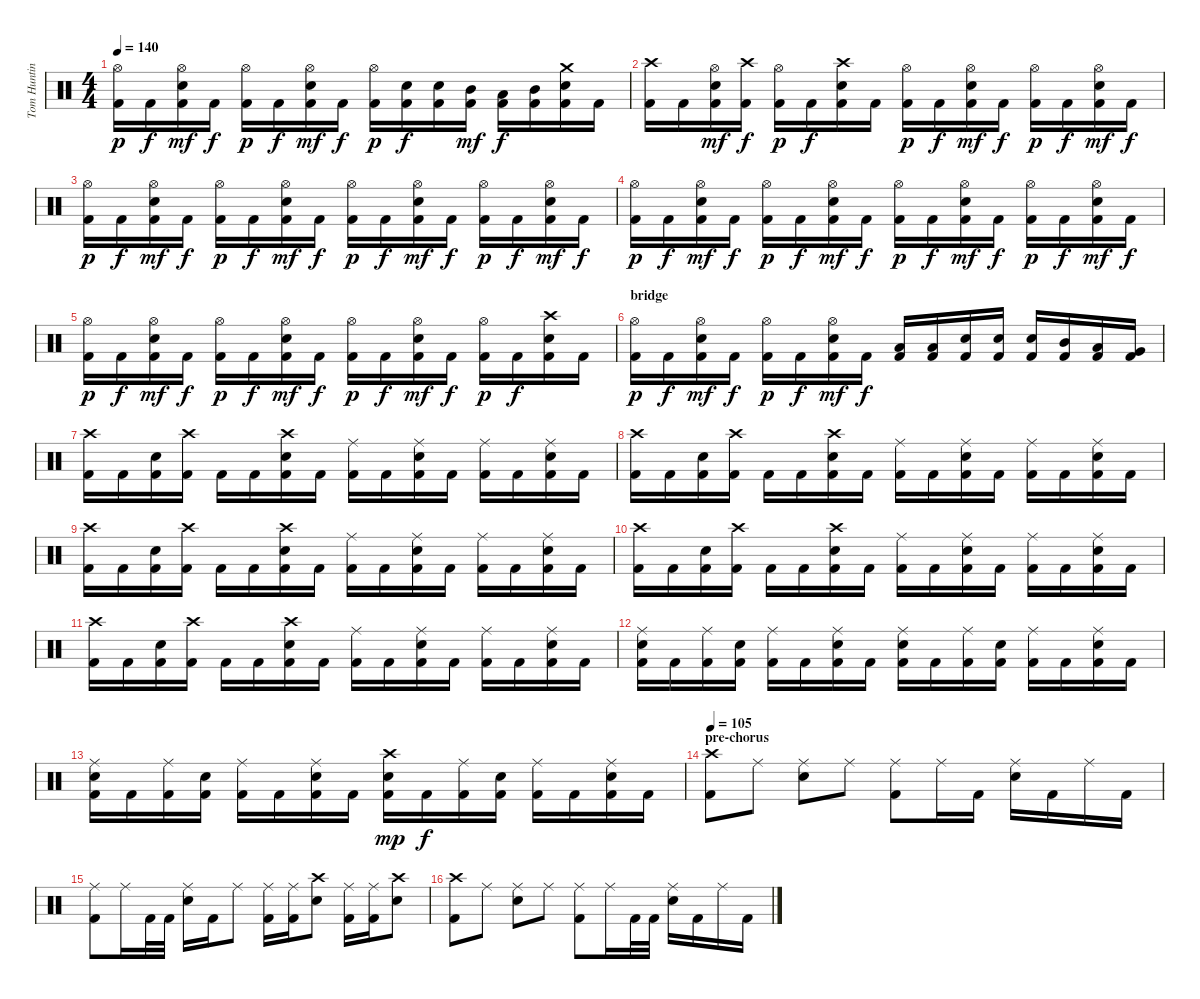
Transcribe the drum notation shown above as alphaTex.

\track ("Tom Hunting" "Tom Huntin") {instrument percussion}
\staff {score}
\articulation defaults
\ts (4 4)
\tempo 140
\clef neutral
\ks c
("Kick (hit) 2" "Hi-Hat (open)").16{dy p} "Kick (hit) 2".16{dy f} ("Kick (hit) 2" "Hi-Hat (open)" "Snare (hit) 2").16{dy mf} "Kick (hit) 2".16{dy f} ("Kick (hit) 2" "Hi-Hat (open)").16{dy p} "Kick (hit) 2".16{dy f} ("Kick (hit) 2" "Hi-Hat (open)" "Snare (hit) 2").16{dy mf} "Kick (hit) 2".16{dy f} ("Kick (hit) 2" "Hi-Hat (open)").16{dy p} ("Kick (hit) 2" "Snare (hit) 2").16{dy f} ("Kick (hit) 2" "Snare (hit) 2").16 ("Kick (hit) 2" "Mid Tom (hit)").16{dy mf} ("Kick (hit) 2" "Low Tom (hit)").16{dy f} ("Kick (hit) 2" "Mid Tom (hit)").16 ("Kick (hit) 2" "Crash medium (hit)" "Snare (hit) 2").16 "Kick (hit) 2".16 |
("Kick (hit) 2" "Crash high (hit)").16 "Kick (hit) 2".16 ("Kick (hit) 2" "Hi-Hat (open)" "Snare (hit) 2").16{dy mf} ("Kick (hit) 2" "Crash high (hit)").16{dy f} ("Kick (hit) 2" "Hi-Hat (open)").16{dy p} "Kick (hit) 2".16{dy f} ("Kick (hit) 2" "Crash high (hit)" "Snare (hit) 2").16 "Kick (hit) 2".16 ("Kick (hit) 2" "Hi-Hat (open)").16{dy p} "Kick (hit) 2".16{dy f} ("Kick (hit) 2" "Hi-Hat (open)" "Snare (hit) 2").16{dy mf} "Kick (hit) 2".16{dy f} ("Kick (hit) 2" "Hi-Hat (open)").16{dy p} "Kick (hit) 2".16{dy f} ("Kick (hit) 2" "Hi-Hat (open)" "Snare (hit) 2").16{dy mf} "Kick (hit) 2".16{dy f} |
("Kick (hit) 2" "Hi-Hat (open)").16{dy p} "Kick (hit) 2".16{dy f} ("Kick (hit) 2" "Hi-Hat (open)" "Snare (hit) 2").16{dy mf} "Kick (hit) 2".16{dy f} ("Kick (hit) 2" "Hi-Hat (open)").16{dy p} "Kick (hit) 2".16{dy f} ("Kick (hit) 2" "Hi-Hat (open)" "Snare (hit) 2").16{dy mf} "Kick (hit) 2".16{dy f} ("Kick (hit) 2" "Hi-Hat (open)").16{dy p} "Kick (hit) 2".16{dy f} ("Kick (hit) 2" "Hi-Hat (open)" "Snare (hit) 2").16{dy mf} "Kick (hit) 2".16{dy f} ("Kick (hit) 2" "Hi-Hat (open)").16{dy p} "Kick (hit) 2".16{dy f} ("Kick (hit) 2" "Hi-Hat (open)" "Snare (hit) 2").16{dy mf} "Kick (hit) 2".16{dy f} |
("Kick (hit) 2" "Hi-Hat (open)").16{dy p} "Kick (hit) 2".16{dy f} ("Kick (hit) 2" "Hi-Hat (open)" "Snare (hit) 2").16{dy mf} "Kick (hit) 2".16{dy f} ("Kick (hit) 2" "Hi-Hat (open)").16{dy p} "Kick (hit) 2".16{dy f} ("Kick (hit) 2" "Hi-Hat (open)" "Snare (hit) 2").16{dy mf} "Kick (hit) 2".16{dy f} ("Kick (hit) 2" "Hi-Hat (open)").16{dy p} "Kick (hit) 2".16{dy f} ("Kick (hit) 2" "Hi-Hat (open)" "Snare (hit) 2").16{dy mf} "Kick (hit) 2".16{dy f} ("Kick (hit) 2" "Hi-Hat (open)").16{dy p} "Kick (hit) 2".16{dy f} ("Kick (hit) 2" "Hi-Hat (open)" "Snare (hit) 2").16{dy mf} "Kick (hit) 2".16{dy f} |
("Kick (hit) 2" "Hi-Hat (open)").16{dy p} "Kick (hit) 2".16{dy f} ("Kick (hit) 2" "Hi-Hat (open)" "Snare (hit) 2").16{dy mf} "Kick (hit) 2".16{dy f} ("Kick (hit) 2" "Hi-Hat (open)").16{dy p} "Kick (hit) 2".16{dy f} ("Kick (hit) 2" "Hi-Hat (open)" "Snare (hit) 2").16{dy mf} "Kick (hit) 2".16{dy f} ("Kick (hit) 2" "Hi-Hat (open)").16{dy p} "Kick (hit) 2".16{dy f} ("Kick (hit) 2" "Hi-Hat (open)" "Snare (hit) 2").16{dy mf} "Kick (hit) 2".16{dy f} ("Kick (hit) 2" "Hi-Hat (open)").16{dy p} "Kick (hit) 2".16{dy f} ("Kick (hit) 2" "Crash high (hit)" "Snare (hit) 2").16 "Kick (hit) 2".16 |
\section ("" "bridge")
("Kick (hit) 2" "Hi-Hat (open)").16{dy p} "Kick (hit) 2".16{dy f} ("Kick (hit) 2" "Hi-Hat (open)" "Snare (hit) 2").16{dy mf} "Kick (hit) 2".16{dy f} ("Kick (hit) 2" "Hi-Hat (open)").16{dy p} "Kick (hit) 2".16{dy f} ("Kick (hit) 2" "Hi-Hat (open)" "Snare (hit) 2").16{dy mf} "Kick (hit) 2".16{dy f} ("Kick (hit) 2" "Low Tom (hit)").16 ("Kick (hit) 2" "Low Tom (hit)").16 ("Kick (hit) 2" "Snare (hit) 2").16 ("Kick (hit) 2" "Snare (hit) 2").16 ("Kick (hit) 2" "Snare (hit) 2").16 ("Kick (hit) 2" "Mid Tom (hit)").16 ("Kick (hit) 2" "Low Tom (hit)").16 ("Kick (hit) 2" "Very Low Tom (hit)").16 |
("Kick (hit) 2" "Crash high (hit)").16 "Kick (hit) 2".16 ("Kick (hit) 2" "Snare (hit) 2").16 ("Kick (hit) 2" "Crash high (hit)").16 "Kick (hit) 2".16 "Kick (hit) 2".16 ("Kick (hit) 2" "Crash high (hit)" "Snare (hit) 2").16 "Kick (hit) 2".16 ("Kick (hit) 2" "Ride (middle)").16 "Kick (hit) 2".16 ("Kick (hit) 2" "Ride (middle)" "Snare (hit) 2").16 "Kick (hit) 2".16 ("Kick (hit) 2" "Ride (middle)").16 "Kick (hit) 2".16 ("Kick (hit) 2" "Ride (middle)" "Snare (hit) 2").16 "Kick (hit) 2".16 |
("Kick (hit) 2" "Crash high (hit)").16 "Kick (hit) 2".16 ("Kick (hit) 2" "Snare (hit) 2").16 ("Kick (hit) 2" "Crash high (hit)").16 "Kick (hit) 2".16 "Kick (hit) 2".16 ("Kick (hit) 2" "Crash high (hit)" "Snare (hit) 2").16 "Kick (hit) 2".16 ("Kick (hit) 2" "Ride (middle)").16 "Kick (hit) 2".16 ("Kick (hit) 2" "Ride (middle)" "Snare (hit) 2").16 "Kick (hit) 2".16 ("Kick (hit) 2" "Ride (middle)").16 "Kick (hit) 2".16 ("Kick (hit) 2" "Ride (middle)" "Snare (hit) 2").16 "Kick (hit) 2".16 |
("Kick (hit) 2" "Crash high (hit)").16 "Kick (hit) 2".16 ("Kick (hit) 2" "Snare (hit) 2").16 ("Kick (hit) 2" "Crash high (hit)").16 "Kick (hit) 2".16 "Kick (hit) 2".16 ("Kick (hit) 2" "Crash high (hit)" "Snare (hit) 2").16 "Kick (hit) 2".16 ("Kick (hit) 2" "Ride (middle)").16 "Kick (hit) 2".16 ("Kick (hit) 2" "Ride (middle)" "Snare (hit) 2").16 "Kick (hit) 2".16 ("Kick (hit) 2" "Ride (middle)").16 "Kick (hit) 2".16 ("Kick (hit) 2" "Ride (middle)" "Snare (hit) 2").16 "Kick (hit) 2".16 |
("Kick (hit) 2" "Crash high (hit)").16 "Kick (hit) 2".16 ("Kick (hit) 2" "Snare (hit) 2").16 ("Kick (hit) 2" "Crash high (hit)").16 "Kick (hit) 2".16 "Kick (hit) 2".16 ("Kick (hit) 2" "Crash high (hit)" "Snare (hit) 2").16 "Kick (hit) 2".16 ("Kick (hit) 2" "Ride (middle)").16 "Kick (hit) 2".16 ("Kick (hit) 2" "Ride (middle)" "Snare (hit) 2").16 "Kick (hit) 2".16 ("Kick (hit) 2" "Ride (middle)").16 "Kick (hit) 2".16 ("Kick (hit) 2" "Ride (middle)" "Snare (hit) 2").16 "Kick (hit) 2".16 |
("Kick (hit) 2" "Crash high (hit)").16 "Kick (hit) 2".16 ("Kick (hit) 2" "Snare (hit) 2").16 ("Kick (hit) 2" "Crash high (hit)").16 "Kick (hit) 2".16 "Kick (hit) 2".16 ("Kick (hit) 2" "Crash high (hit)" "Snare (hit) 2").16 "Kick (hit) 2".16 ("Kick (hit) 2" "Ride (middle)").16 "Kick (hit) 2".16 ("Kick (hit) 2" "Ride (middle)" "Snare (hit) 2").16 "Kick (hit) 2".16 ("Kick (hit) 2" "Ride (middle)").16 "Kick (hit) 2".16 ("Kick (hit) 2" "Ride (middle)" "Snare (hit) 2").16 "Kick (hit) 2".16 |
("Kick (hit) 2" "Ride (middle)" "Snare (hit) 2").16 "Kick (hit) 2".16 ("Kick (hit) 2" "Ride (middle)").16 ("Kick (hit) 2" "Snare (hit) 2").16 ("Kick (hit) 2" "Ride (middle)").16 "Kick (hit) 2".16 ("Kick (hit) 2" "Ride (middle)" "Snare (hit) 2").16 "Kick (hit) 2".16 ("Kick (hit) 2" "Ride (middle)" "Snare (hit) 2").16 "Kick (hit) 2".16 ("Kick (hit) 2" "Ride (middle)").16 ("Kick (hit) 2" "Snare (hit) 2").16 ("Kick (hit) 2" "Ride (middle)").16 "Kick (hit) 2".16 ("Kick (hit) 2" "Ride (middle)" "Snare (hit) 2").16 "Kick (hit) 2".16 |
("Kick (hit) 2" "Ride (middle)" "Snare (hit) 2").16 "Kick (hit) 2".16 ("Kick (hit) 2" "Ride (middle)").16 ("Kick (hit) 2" "Snare (hit) 2").16 ("Kick (hit) 2" "Ride (middle)").16 "Kick (hit) 2".16 ("Kick (hit) 2" "Ride (middle)" "Snare (hit) 2").16 "Kick (hit) 2".16 ("Kick (hit) 2" "Crash high (hit)" "Snare (hit) 2").16{dy mp} "Kick (hit) 2".16{dy f} ("Kick (hit) 2" "Ride (middle)").16 ("Kick (hit) 2" "Snare (hit) 2").16 ("Kick (hit) 2" "Ride (middle)").16 "Kick (hit) 2".16 ("Kick (hit) 2" "Ride (middle)" "Snare (hit) 2").16 "Kick (hit) 2".16 |
\section ("" "pre-chorus")
\tempo 105
("Kick (hit) 2" "Crash high (hit)").8 "Ride (middle)".8 ("Ride (middle)" "Snare (hit) 2").8 "Ride (middle)".8 ("Kick (hit) 2" "Ride (middle)").8 "Ride (middle)".16 "Kick (hit) 2".16 ("Ride (middle)" "Snare (hit) 2").16 "Kick (hit) 2".16 "Ride (middle)".16 "Kick (hit) 2".16 |
("Kick (hit) 2" "Ride (middle)").8 "Ride (middle)".16 "Kick (hit) 2".32 "Kick (hit) 2".32 ("Ride (middle)" "Snare (hit) 2").16 "Kick (hit) 2".16 "Ride (middle)".8 ("Kick (hit) 2" "Ride (middle)").16 ("Kick (hit) 2" "Ride (middle)").16 ("Crash high (hit)" "Snare (hit) 2").8 ("Kick (hit) 2" "Ride (middle)").16 ("Kick (hit) 2" "Ride (middle)").16 ("Crash high (hit)" "Snare (hit) 2").8 |
("Kick (hit) 2" "Crash high (hit)").8 "Ride (middle)".8 ("Ride (middle)" "Snare (hit) 2").8 "Ride (middle)".8 ("Kick (hit) 2" "Ride (middle)").8 "Ride (middle)".16 "Kick (hit) 2".32 "Kick (hit) 2".32 ("Ride (middle)" "Snare (hit) 2").16 "Kick (hit) 2".16 "Ride (middle)".16 "Kick (hit) 2".16
